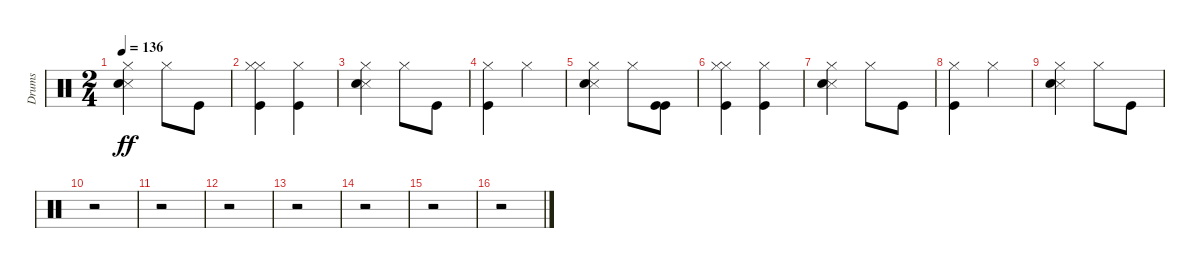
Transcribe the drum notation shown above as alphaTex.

\track ("Drums" "Drums") {instrument percussion}
\staff {score}
\articulation defaults
\ts (2 4)
\tempo 136
\clef neutral
\ks c
("Snare (side stick) 3" "Hi-Hat (closed)" "Snare (hit) 2").4{dy ff} "Hi-Hat (closed)".8 "Kick (hit)".8 |
("Kick (hit)" "Hi-Hat (closed)" "Hi-Hat (closed)").4 ("Kick (hit)" "Hi-Hat (closed)").4 |
("Snare (side stick) 3" "Hi-Hat (closed)" "Snare (hit) 2").4 "Hi-Hat (closed)".8 "Kick (hit)".8 |
("Kick (hit)" "Hi-Hat (closed)").4 "Hi-Hat (closed)".4 |
("Snare (side stick) 3" "Hi-Hat (closed)" "Snare (hit) 2").4 "Hi-Hat (closed)".8 ("Kick (hit)" "Kick (hit)").8 |
("Kick (hit)" "Hi-Hat (closed)" "Hi-Hat (closed)").4 ("Kick (hit)" "Hi-Hat (closed)").4 |
("Snare (side stick) 3" "Hi-Hat (closed)" "Snare (hit) 2").4 "Hi-Hat (closed)".8 "Kick (hit)".8 |
("Kick (hit)" "Hi-Hat (closed)").4 "Hi-Hat (closed)".4 |
("Snare (side stick) 3" "Hi-Hat (closed)" "Snare (hit) 2").4 "Hi-Hat (closed)".8 "Kick (hit)".8 |
r.2 |
r.2 |
r.2 |
r.2 |
r.2 |
r.2 |
r.2
